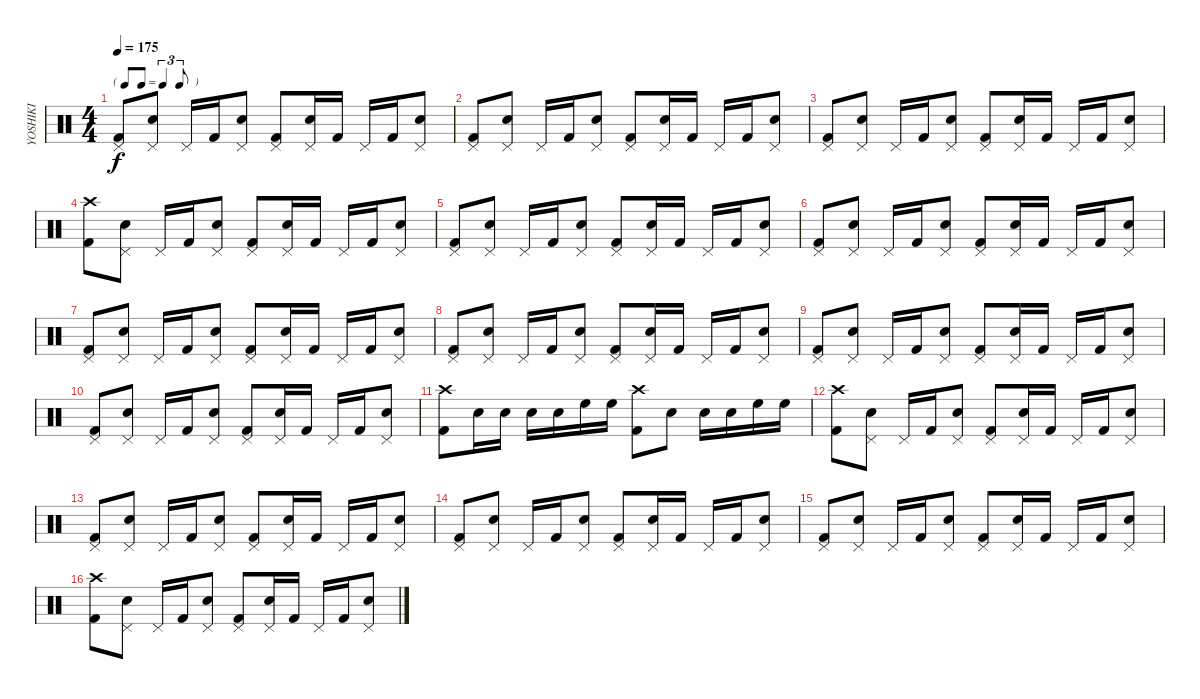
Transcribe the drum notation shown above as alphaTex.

\track ("YOSHIKI" "YOSHIKI") {instrument percussion}
\staff {score}
\articulation defaults
\ts (4 4)
\tf triplet8th
\tempo 175
\clef neutral
\ks c
("Pedal Hi-Hat (hit)" "Kick (hit) 2").8{dy f} ("Pedal Hi-Hat (hit)" "Snare (hit) 2").8 "Pedal Hi-Hat (hit)".16 "Kick (hit) 2".16 ("Pedal Hi-Hat (hit)" "Snare (hit) 2").8 ("Pedal Hi-Hat (hit)" "Kick (hit) 2").8 ("Pedal Hi-Hat (hit)" "Snare (hit) 2").16 "Kick (hit) 2".16 "Pedal Hi-Hat (hit)".16 "Kick (hit) 2".16 ("Pedal Hi-Hat (hit)" "Snare (hit) 2").8 |
("Pedal Hi-Hat (hit)" "Kick (hit) 2").8 ("Pedal Hi-Hat (hit)" "Snare (hit) 2").8 "Pedal Hi-Hat (hit)".16 "Kick (hit) 2".16 ("Pedal Hi-Hat (hit)" "Snare (hit) 2").8 ("Pedal Hi-Hat (hit)" "Kick (hit) 2").8 ("Pedal Hi-Hat (hit)" "Snare (hit) 2").16 "Kick (hit) 2".16 "Pedal Hi-Hat (hit)".16 "Kick (hit) 2".16 ("Pedal Hi-Hat (hit)" "Snare (hit) 2").8 |
("Pedal Hi-Hat (hit)" "Kick (hit) 2").8 ("Pedal Hi-Hat (hit)" "Snare (hit) 2").8 "Pedal Hi-Hat (hit)".16 "Kick (hit) 2".16 ("Pedal Hi-Hat (hit)" "Snare (hit) 2").8 ("Pedal Hi-Hat (hit)" "Kick (hit) 2").8 ("Pedal Hi-Hat (hit)" "Snare (hit) 2").16 "Kick (hit) 2".16 "Pedal Hi-Hat (hit)".16 "Kick (hit) 2".16 ("Pedal Hi-Hat (hit)" "Snare (hit) 2").8 |
("Crash high (hit)" "Kick (hit) 2").8 ("Pedal Hi-Hat (hit)" "Snare (hit) 2").8 "Pedal Hi-Hat (hit)".16 "Kick (hit) 2".16 ("Pedal Hi-Hat (hit)" "Snare (hit) 2").8 ("Pedal Hi-Hat (hit)" "Kick (hit) 2").8 ("Pedal Hi-Hat (hit)" "Snare (hit) 2").16 "Kick (hit) 2".16 "Pedal Hi-Hat (hit)".16 "Kick (hit) 2".16 ("Pedal Hi-Hat (hit)" "Snare (hit) 2").8 |
("Pedal Hi-Hat (hit)" "Kick (hit) 2").8 ("Pedal Hi-Hat (hit)" "Snare (hit) 2").8 "Pedal Hi-Hat (hit)".16 "Kick (hit) 2".16 ("Pedal Hi-Hat (hit)" "Snare (hit) 2").8 ("Pedal Hi-Hat (hit)" "Kick (hit) 2").8 ("Pedal Hi-Hat (hit)" "Snare (hit) 2").16 "Kick (hit) 2".16 "Pedal Hi-Hat (hit)".16 "Kick (hit) 2".16 ("Pedal Hi-Hat (hit)" "Snare (hit) 2").8 |
("Pedal Hi-Hat (hit)" "Kick (hit) 2").8 ("Pedal Hi-Hat (hit)" "Snare (hit) 2").8 "Pedal Hi-Hat (hit)".16 "Kick (hit) 2".16 ("Pedal Hi-Hat (hit)" "Snare (hit) 2").8 ("Pedal Hi-Hat (hit)" "Kick (hit) 2").8 ("Pedal Hi-Hat (hit)" "Snare (hit) 2").16 "Kick (hit) 2".16 "Pedal Hi-Hat (hit)".16 "Kick (hit) 2".16 ("Pedal Hi-Hat (hit)" "Snare (hit) 2").8 |
("Pedal Hi-Hat (hit)" "Kick (hit) 2").8 ("Pedal Hi-Hat (hit)" "Snare (hit) 2").8 "Pedal Hi-Hat (hit)".16 "Kick (hit) 2".16 ("Pedal Hi-Hat (hit)" "Snare (hit) 2").8 ("Pedal Hi-Hat (hit)" "Kick (hit) 2").8 ("Pedal Hi-Hat (hit)" "Snare (hit) 2").16 "Kick (hit) 2".16 "Pedal Hi-Hat (hit)".16 "Kick (hit) 2".16 ("Pedal Hi-Hat (hit)" "Snare (hit) 2").8 |
("Pedal Hi-Hat (hit)" "Kick (hit) 2").8 ("Pedal Hi-Hat (hit)" "Snare (hit) 2").8 "Pedal Hi-Hat (hit)".16 "Kick (hit) 2".16 ("Pedal Hi-Hat (hit)" "Snare (hit) 2").8 ("Pedal Hi-Hat (hit)" "Kick (hit) 2").8 ("Pedal Hi-Hat (hit)" "Snare (hit) 2").16 "Kick (hit) 2".16 "Pedal Hi-Hat (hit)".16 "Kick (hit) 2".16 ("Pedal Hi-Hat (hit)" "Snare (hit) 2").8 |
("Pedal Hi-Hat (hit)" "Kick (hit) 2").8 ("Pedal Hi-Hat (hit)" "Snare (hit) 2").8 "Pedal Hi-Hat (hit)".16 "Kick (hit) 2".16 ("Pedal Hi-Hat (hit)" "Snare (hit) 2").8 ("Pedal Hi-Hat (hit)" "Kick (hit) 2").8 ("Pedal Hi-Hat (hit)" "Snare (hit) 2").16 "Kick (hit) 2".16 "Pedal Hi-Hat (hit)".16 "Kick (hit) 2".16 ("Pedal Hi-Hat (hit)" "Snare (hit) 2").8 |
("Pedal Hi-Hat (hit)" "Kick (hit) 2").8 ("Pedal Hi-Hat (hit)" "Snare (hit) 2").8 "Pedal Hi-Hat (hit)".16 "Kick (hit) 2".16 ("Pedal Hi-Hat (hit)" "Snare (hit) 2").8 ("Pedal Hi-Hat (hit)" "Kick (hit) 2").8 ("Pedal Hi-Hat (hit)" "Snare (hit) 2").16 "Kick (hit) 2".16 "Pedal Hi-Hat (hit)".16 "Kick (hit) 2".16 ("Pedal Hi-Hat (hit)" "Snare (hit) 2").8 |
("Crash high (hit)" "Kick (hit) 2").8 "Snare (hit) 2".16 "Snare (hit) 2".16 "Snare (hit) 2".16 "Snare (hit) 2".16 "High Floor Tom (hit)".16 "High Floor Tom (hit)".16 ("Crash high (hit)" "Kick (hit) 2").8 "Snare (hit) 2".8 "Snare (hit) 2".16 "Snare (hit) 2".16 "High Floor Tom (hit)".16 "High Floor Tom (hit)".16 |
("Crash high (hit)" "Kick (hit) 2").8 ("Pedal Hi-Hat (hit)" "Snare (hit) 2").8 "Pedal Hi-Hat (hit)".16 "Kick (hit) 2".16 ("Pedal Hi-Hat (hit)" "Snare (hit) 2").8 ("Pedal Hi-Hat (hit)" "Kick (hit) 2").8 ("Pedal Hi-Hat (hit)" "Snare (hit) 2").16 "Kick (hit) 2".16 "Pedal Hi-Hat (hit)".16 "Kick (hit) 2".16 ("Pedal Hi-Hat (hit)" "Snare (hit) 2").8 |
("Pedal Hi-Hat (hit)" "Kick (hit) 2").8 ("Pedal Hi-Hat (hit)" "Snare (hit) 2").8 "Pedal Hi-Hat (hit)".16 "Kick (hit) 2".16 ("Pedal Hi-Hat (hit)" "Snare (hit) 2").8 ("Pedal Hi-Hat (hit)" "Kick (hit) 2").8 ("Pedal Hi-Hat (hit)" "Snare (hit) 2").16 "Kick (hit) 2".16 "Pedal Hi-Hat (hit)".16 "Kick (hit) 2".16 ("Pedal Hi-Hat (hit)" "Snare (hit) 2").8 |
("Pedal Hi-Hat (hit)" "Kick (hit) 2").8 ("Pedal Hi-Hat (hit)" "Snare (hit) 2").8 "Pedal Hi-Hat (hit)".16 "Kick (hit) 2".16 ("Pedal Hi-Hat (hit)" "Snare (hit) 2").8 ("Pedal Hi-Hat (hit)" "Kick (hit) 2").8 ("Pedal Hi-Hat (hit)" "Snare (hit) 2").16 "Kick (hit) 2".16 "Pedal Hi-Hat (hit)".16 "Kick (hit) 2".16 ("Pedal Hi-Hat (hit)" "Snare (hit) 2").8 |
("Pedal Hi-Hat (hit)" "Kick (hit) 2").8 ("Pedal Hi-Hat (hit)" "Snare (hit) 2").8 "Pedal Hi-Hat (hit)".16 "Kick (hit) 2".16 ("Pedal Hi-Hat (hit)" "Snare (hit) 2").8 ("Pedal Hi-Hat (hit)" "Kick (hit) 2").8 ("Pedal Hi-Hat (hit)" "Snare (hit) 2").16 "Kick (hit) 2".16 "Pedal Hi-Hat (hit)".16 "Kick (hit) 2".16 ("Pedal Hi-Hat (hit)" "Snare (hit) 2").8 |
("Crash high (hit)" "Kick (hit) 2").8 ("Pedal Hi-Hat (hit)" "Snare (hit) 2").8 "Pedal Hi-Hat (hit)".16 "Kick (hit) 2".16 ("Pedal Hi-Hat (hit)" "Snare (hit) 2").8 ("Pedal Hi-Hat (hit)" "Kick (hit) 2").8 ("Pedal Hi-Hat (hit)" "Snare (hit) 2").16 "Kick (hit) 2".16 "Pedal Hi-Hat (hit)".16 "Kick (hit) 2".16 ("Pedal Hi-Hat (hit)" "Snare (hit) 2").8
